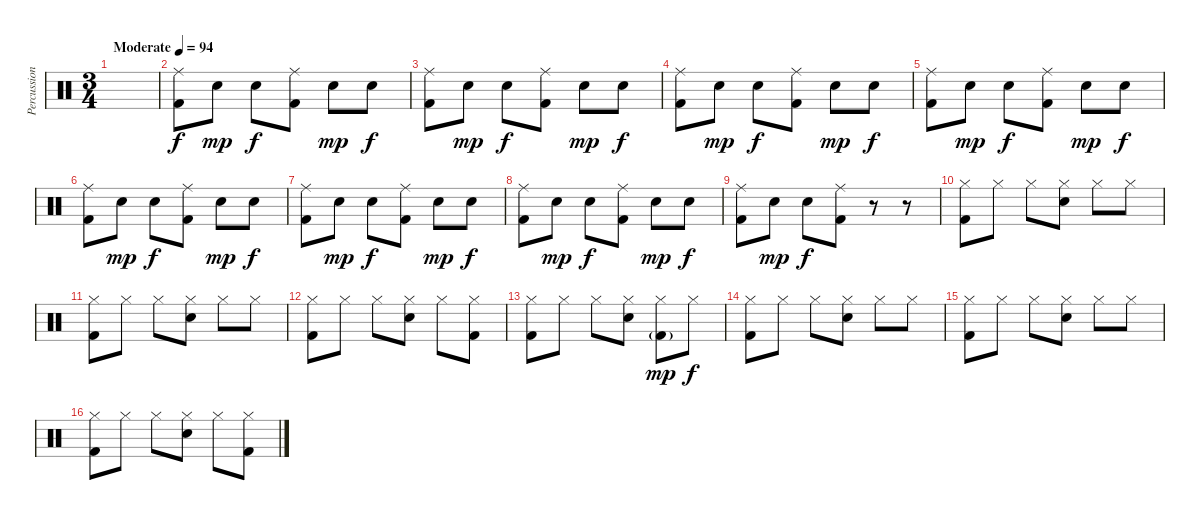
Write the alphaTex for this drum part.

\track ("Percussion" "Percussion") {instrument percussion}
\staff {score}
\articulation defaults
\ts (3 4)
\section ("" "")
\tempo (94 "Moderate")
\clef neutral
\ks c
|
("Ride (middle)" "Kick (hit) 2").8 "Snare (hit) 2".8{dy mp} "Snare (hit) 2".8{dy f} ("Ride (middle)" "Kick (hit) 2").8 "Snare (hit) 2".8{dy mp} "Snare (hit) 2".8{dy f} |
("Ride (middle)" "Kick (hit) 2").8 "Snare (hit) 2".8{dy mp} "Snare (hit) 2".8{dy f} ("Ride (middle)" "Kick (hit) 2").8 "Snare (hit) 2".8{dy mp} "Snare (hit) 2".8{dy f} |
("Ride (middle)" "Kick (hit) 2").8 "Snare (hit) 2".8{dy mp} "Snare (hit) 2".8{dy f} ("Ride (middle)" "Kick (hit) 2").8 "Snare (hit) 2".8{dy mp} "Snare (hit) 2".8{dy f} |
("Ride (middle)" "Kick (hit) 2").8 "Snare (hit) 2".8{dy mp} "Snare (hit) 2".8{dy f} ("Ride (middle)" "Kick (hit) 2").8 "Snare (hit) 2".8{dy mp} "Snare (hit) 2".8{dy f} |
("Ride (middle)" "Kick (hit) 2").8 "Snare (hit) 2".8{dy mp} "Snare (hit) 2".8{dy f} ("Ride (middle)" "Kick (hit) 2").8 "Snare (hit) 2".8{dy mp} "Snare (hit) 2".8{dy f} |
("Ride (middle)" "Kick (hit) 2").8 "Snare (hit) 2".8{dy mp} "Snare (hit) 2".8{dy f} ("Ride (middle)" "Kick (hit) 2").8 "Snare (hit) 2".8{dy mp} "Snare (hit) 2".8{dy f} |
("Ride (middle)" "Kick (hit) 2").8 "Snare (hit) 2".8{dy mp} "Snare (hit) 2".8{dy f} ("Ride (middle)" "Kick (hit) 2").8 "Snare (hit) 2".8{dy mp} "Snare (hit) 2".8{dy f} |
("Ride (middle)" "Kick (hit) 2").8 "Snare (hit) 2".8{dy mp} "Snare (hit) 2".8{dy f} ("Ride (middle)" "Kick (hit) 2").8 r.8 r.8 |
("Hi-Hat (closed)" "Kick (hit) 2").8 "Hi-Hat (closed)".8 "Hi-Hat (closed)".8 ("Hi-Hat (closed)" "Snare (hit) 2").8 "Hi-Hat (closed)".8 "Hi-Hat (closed)".8 |
("Hi-Hat (closed)" "Kick (hit) 2").8 "Hi-Hat (closed)".8 "Hi-Hat (closed)".8 ("Hi-Hat (closed)" "Snare (hit) 2").8 "Hi-Hat (closed)".8 "Hi-Hat (closed)".8 |
("Hi-Hat (closed)" "Kick (hit) 2").8 "Hi-Hat (closed)".8 "Hi-Hat (closed)".8 ("Hi-Hat (closed)" "Snare (hit) 2").8 "Hi-Hat (closed)".8 ("Hi-Hat (closed)" "Kick (hit) 2").8 |
("Hi-Hat (closed)" "Kick (hit) 2").8 "Hi-Hat (closed)".8 "Hi-Hat (closed)".8 ("Hi-Hat (closed)" "Snare (hit) 2").8 ("Hi-Hat (closed)" "Kick (hit) 2"{g}).8{dy mp} "Hi-Hat (closed)".8{dy f} |
("Hi-Hat (closed)" "Kick (hit) 2").8 "Hi-Hat (closed)".8 "Hi-Hat (closed)".8 ("Hi-Hat (closed)" "Snare (hit) 2").8 "Hi-Hat (closed)".8 "Hi-Hat (closed)".8 |
("Hi-Hat (closed)" "Kick (hit) 2").8 "Hi-Hat (closed)".8 "Hi-Hat (closed)".8 ("Hi-Hat (closed)" "Snare (hit) 2").8 "Hi-Hat (closed)".8 "Hi-Hat (closed)".8 |
("Hi-Hat (closed)" "Kick (hit) 2").8 "Hi-Hat (closed)".8 "Hi-Hat (closed)".8 ("Hi-Hat (closed)" "Snare (hit) 2").8 "Hi-Hat (closed)".8 ("Hi-Hat (closed)" "Kick (hit) 2").8
